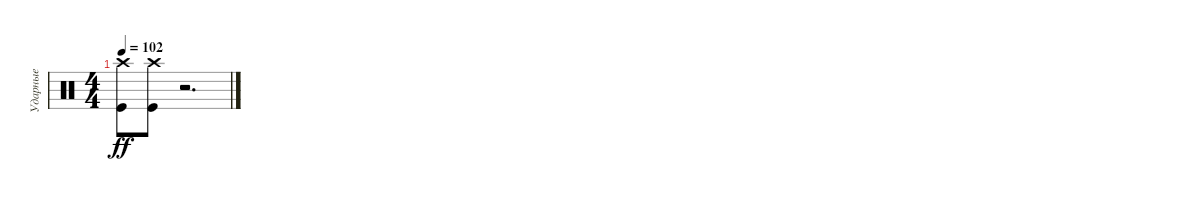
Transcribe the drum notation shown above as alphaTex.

\track ("Ударные" "Ударные") {instrument percussion}
\staff {score}
\articulation defaults
\ts (4 4)
\tempo 102
\clef neutral
\ks c
("Crash high (hit)" "Kick (hit)").8{dy ff} ("Crash high (hit)" "Kick (hit)").8 r.2{d}
